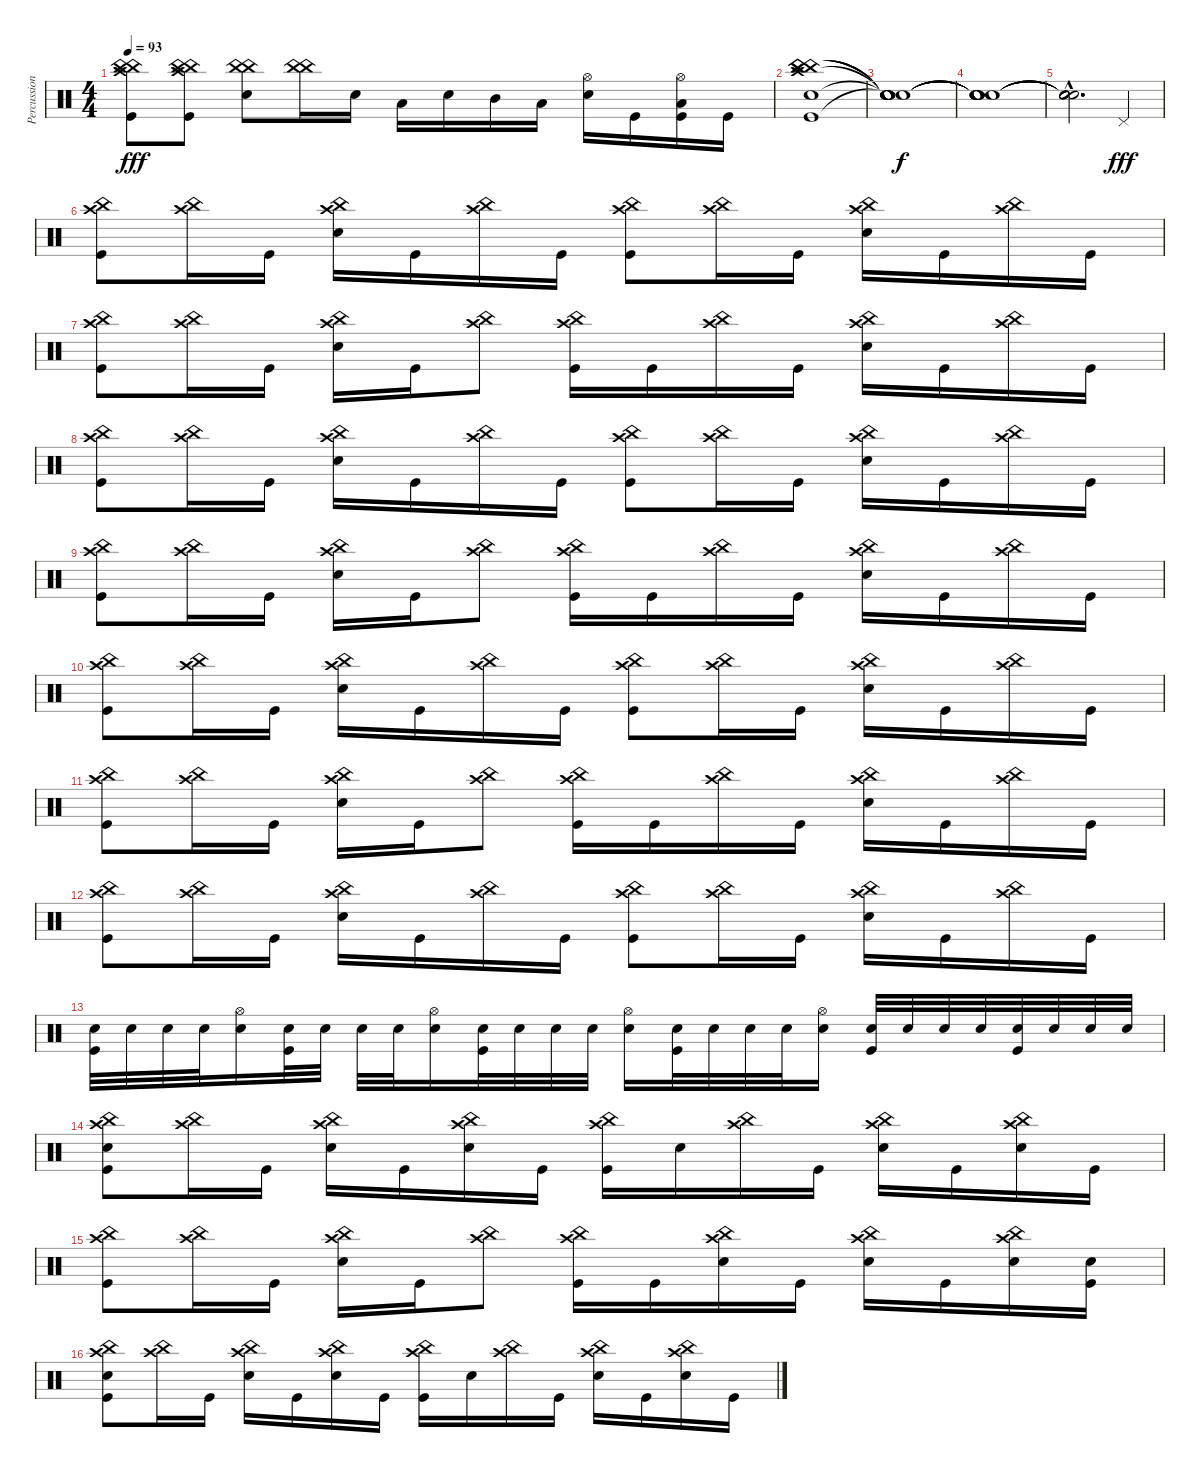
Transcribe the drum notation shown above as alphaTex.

\track ("Percussion" "Percussion") {instrument percussion}
\staff {score}
\articulation defaults
\ts (4 4)
\tempo 93
\clef neutral
\ks c
("China (hit)" "Crash high (hit)" "China (hit)" "Kick (hit)").8{dy fff} ("China (hit)" "Crash high (hit)" "China (hit)" "Kick (hit)").8 ("China (hit)" "China (hit)" "Snare (hit) 2").8 ("China (hit)" "China (hit)").16 "Snare (hit) 2".16 "Low Tom (hit)".16 "Snare (hit) 2".16 "Mid Tom (hit)".16 "Low Tom (hit)".16 ("Hi-Hat (open)" "Snare (hit) 2").16 "Kick (hit)".16 ("Hi-Hat (open)" "Low Tom (hit)" "Kick (hit)").16 "Kick (hit)".16 |
("Crash high (hit)" "China (hit)" "China (hit)" "China (hit)" "Snare (hit) 2" "Kick (hit)").1 |
("Snare (hit)"{t} "Snare (hit)"{t} "Snare (hit)"{t} "Snare (hit)"{t} "Snare (hit)"{t} "Snare (hit)"{t}).1{dy f} |
("Snare (hit)"{t} "Snare (hit)"{t} "Snare (hit)"{t} "Snare (hit)"{t} "Snare (hit)"{t} "Snare (hit)"{t}).1 |
("Snare (hit)"{hac t} "Snare (hit)"{hac t} "Snare (hit)"{hac t} "Snare (hit)"{hac t} "Snare (hit)"{hac t} "Snare (hit)"{hac t}).2{d} "Pedal Hi-Hat (hit)".4{dy fff} |
("China (hit)" "Crash high (hit)" "Kick (hit)").8 ("China (hit)" "Crash high (hit)").16 "Kick (hit)".16 ("China (hit)" "Crash high (hit)" "Snare (hit) 2").16 "Kick (hit)".16 ("China (hit)" "Crash high (hit)").16 "Kick (hit)".16 ("China (hit)" "Crash high (hit)" "Kick (hit)").8 ("China (hit)" "Crash high (hit)").16 "Kick (hit)".16 ("China (hit)" "Crash high (hit)" "Snare (hit) 2").16 "Kick (hit)".16 ("China (hit)" "Crash high (hit)").16 "Kick (hit)".16 |
("China (hit)" "Crash high (hit)" "Kick (hit)").8 ("China (hit)" "Crash high (hit)").16 "Kick (hit)".16 ("China (hit)" "Crash high (hit)" "Snare (hit) 2").16 "Kick (hit)".16 ("China (hit)" "Crash high (hit)").8 ("China (hit)" "Crash high (hit)" "Kick (hit)").16 "Kick (hit)".16 ("China (hit)" "Crash high (hit)").16 "Kick (hit)".16 ("China (hit)" "Crash high (hit)" "Snare (hit) 2").16 "Kick (hit)".16 ("China (hit)" "Crash high (hit)").16 "Kick (hit)".16 |
("China (hit)" "Crash high (hit)" "Kick (hit)").8 ("China (hit)" "Crash high (hit)").16 "Kick (hit)".16 ("China (hit)" "Crash high (hit)" "Snare (hit) 2").16 "Kick (hit)".16 ("China (hit)" "Crash high (hit)").16 "Kick (hit)".16 ("China (hit)" "Crash high (hit)" "Kick (hit)").8 ("China (hit)" "Crash high (hit)").16 "Kick (hit)".16 ("China (hit)" "Crash high (hit)" "Snare (hit) 2").16 "Kick (hit)".16 ("China (hit)" "Crash high (hit)").16 "Kick (hit)".16 |
("China (hit)" "Crash high (hit)" "Kick (hit)").8 ("China (hit)" "Crash high (hit)").16 "Kick (hit)".16 ("China (hit)" "Crash high (hit)" "Snare (hit) 2").16 "Kick (hit)".16 ("China (hit)" "Crash high (hit)").8 ("China (hit)" "Crash high (hit)" "Kick (hit)").16 "Kick (hit)".16 ("China (hit)" "Crash high (hit)").16 "Kick (hit)".16 ("China (hit)" "Crash high (hit)" "Snare (hit) 2").16 "Kick (hit)".16 ("China (hit)" "Crash high (hit)").16 "Kick (hit)".16 |
("China (hit)" "Crash high (hit)" "Kick (hit)").8 ("China (hit)" "Crash high (hit)").16 "Kick (hit)".16 ("China (hit)" "Crash high (hit)" "Snare (hit) 2").16 "Kick (hit)".16 ("China (hit)" "Crash high (hit)").16 "Kick (hit)".16 ("China (hit)" "Crash high (hit)" "Kick (hit)").8 ("China (hit)" "Crash high (hit)").16 "Kick (hit)".16 ("China (hit)" "Crash high (hit)" "Snare (hit) 2").16 "Kick (hit)".16 ("China (hit)" "Crash high (hit)").16 "Kick (hit)".16 |
("China (hit)" "Crash high (hit)" "Kick (hit)").8 ("China (hit)" "Crash high (hit)").16 "Kick (hit)".16 ("China (hit)" "Crash high (hit)" "Snare (hit) 2").16 "Kick (hit)".16 ("China (hit)" "Crash high (hit)").8 ("China (hit)" "Crash high (hit)" "Kick (hit)").16 "Kick (hit)".16 ("China (hit)" "Crash high (hit)").16 "Kick (hit)".16 ("China (hit)" "Crash high (hit)" "Snare (hit) 2").16 "Kick (hit)".16 ("China (hit)" "Crash high (hit)").16 "Kick (hit)".16 |
("China (hit)" "Crash high (hit)" "Kick (hit)").8 ("China (hit)" "Crash high (hit)").16 "Kick (hit)".16 ("China (hit)" "Crash high (hit)" "Snare (hit) 2").16 "Kick (hit)".16 ("China (hit)" "Crash high (hit)").16 "Kick (hit)".16 ("China (hit)" "Crash high (hit)" "Kick (hit)").8 ("China (hit)" "Crash high (hit)").16 "Kick (hit)".16 ("China (hit)" "Crash high (hit)" "Snare (hit) 2").16 "Kick (hit)".16 ("China (hit)" "Crash high (hit)").16 "Kick (hit)".16 |
("Snare (hit) 2" "Kick (hit)").32 "Snare (hit) 2".32 "Snare (hit) 2".32 "Snare (hit) 2".32 ("Hi-Hat (open)" "Snare (hit) 2").16 ("Snare (hit) 2" "Kick (hit)").32 "Snare (hit) 2".32 "Snare (hit) 2".32 "Snare (hit) 2".32 ("Hi-Hat (open)" "Snare (hit) 2").16 ("Snare (hit) 2" "Kick (hit)").32 "Snare (hit) 2".32 "Snare (hit) 2".32 "Snare (hit) 2".32 ("Hi-Hat (open)" "Snare (hit) 2").16 ("Snare (hit) 2" "Kick (hit)").32 "Snare (hit) 2".32 "Snare (hit) 2".32 "Snare (hit) 2".32 ("Hi-Hat (open)" "Snare (hit) 2").16 ("Snare (hit) 2" "Kick (hit)").32 "Snare (hit) 2".32 "Snare (hit) 2".32 "Snare (hit) 2".32 ("Snare (hit) 2" "Kick (hit)").32 "Snare (hit) 2".32 "Snare (hit) 2".32 "Snare (hit) 2".32 |
("China (hit)" "Crash high (hit)" "Snare (hit) 2" "Kick (hit)").8 ("China (hit)" "Crash high (hit)").16 "Kick (hit)".16 ("China (hit)" "Crash high (hit)" "Snare (hit) 2").16 "Kick (hit)".16 ("China (hit)" "Crash high (hit)" "Snare (hit) 2").16 "Kick (hit)".16 ("China (hit)" "Crash high (hit)" "Kick (hit)").16 "Snare (hit) 2".16 ("China (hit)" "Crash high (hit)").16 "Kick (hit)".16 ("China (hit)" "Crash high (hit)" "Snare (hit) 2").16 "Kick (hit)".16 ("China (hit)" "Crash high (hit)" "Snare (hit) 2").16 "Kick (hit)".16 |
("China (hit)" "Crash high (hit)" "Kick (hit)").8 ("China (hit)" "Crash high (hit)").16 "Kick (hit)".16 ("China (hit)" "Crash high (hit)" "Snare (hit) 2").16 "Kick (hit)".16 ("China (hit)" "Crash high (hit)").8 ("China (hit)" "Crash high (hit)" "Kick (hit)").16 "Kick (hit)".16 ("China (hit)" "Crash high (hit)" "Snare (hit) 2").16 "Kick (hit)".16 ("China (hit)" "Crash high (hit)" "Snare (hit) 2").16 "Kick (hit)".16 ("China (hit)" "Crash high (hit)" "Snare (hit) 2").16 ("Snare (hit) 2" "Kick (hit)").16 |
("China (hit)" "Crash high (hit)" "Snare (hit) 2" "Kick (hit)").8 ("China (hit)" "Crash high (hit)").16 "Kick (hit)".16 ("China (hit)" "Crash high (hit)" "Snare (hit) 2").16 "Kick (hit)".16 ("China (hit)" "Crash high (hit)" "Snare (hit) 2").16 "Kick (hit)".16 ("China (hit)" "Crash high (hit)" "Kick (hit)").16 "Snare (hit) 2".16 ("China (hit)" "Crash high (hit)").16 "Kick (hit)".16 ("China (hit)" "Crash high (hit)" "Snare (hit) 2").16 "Kick (hit)".16 ("China (hit)" "Crash high (hit)" "Snare (hit) 2").16 "Kick (hit)".16
